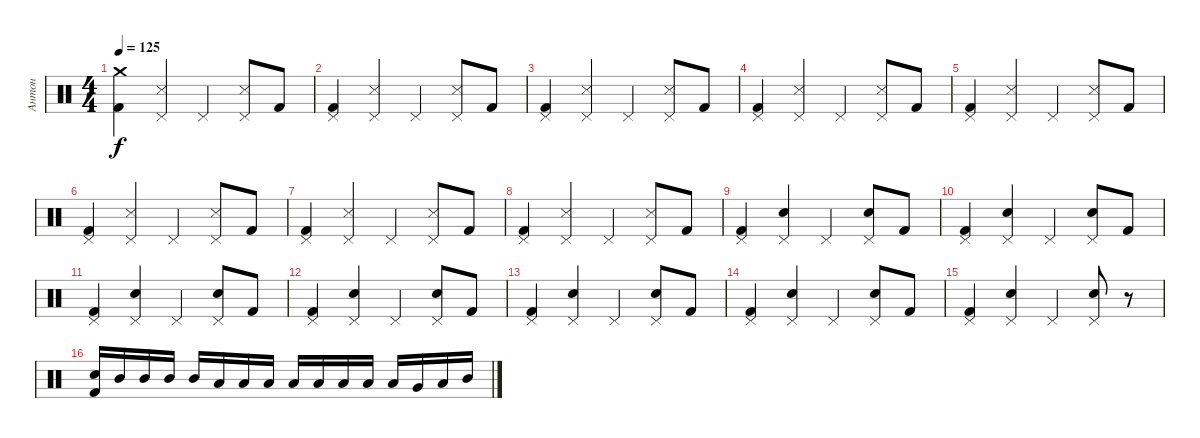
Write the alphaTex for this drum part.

\track ("Антон" "Антон") {instrument percussion}
\staff {score}
\articulation defaults
\ts (4 4)
\tempo 125
\clef neutral
\ks c
("Crash medium (hit)" "Kick (hit) 2").4{dy f} ("Pedal Hi-Hat (hit)" "Snare (side stick) 3").4 "Pedal Hi-Hat (hit)".4 ("Pedal Hi-Hat (hit)" "Snare (side stick) 3").8 "Kick (hit) 2".8 |
("Pedal Hi-Hat (hit)" "Kick (hit) 2").4 ("Pedal Hi-Hat (hit)" "Snare (side stick) 3").4 "Pedal Hi-Hat (hit)".4 ("Pedal Hi-Hat (hit)" "Snare (side stick) 3").8 "Kick (hit) 2".8 |
("Pedal Hi-Hat (hit)" "Kick (hit) 2").4 ("Pedal Hi-Hat (hit)" "Snare (side stick) 3").4 "Pedal Hi-Hat (hit)".4 ("Pedal Hi-Hat (hit)" "Snare (side stick) 3").8 "Kick (hit) 2".8 |
("Pedal Hi-Hat (hit)" "Kick (hit) 2").4 ("Pedal Hi-Hat (hit)" "Snare (side stick) 3").4 "Pedal Hi-Hat (hit)".4 ("Pedal Hi-Hat (hit)" "Snare (side stick) 3").8 "Kick (hit) 2".8 |
("Pedal Hi-Hat (hit)" "Kick (hit) 2").4 ("Pedal Hi-Hat (hit)" "Snare (side stick) 3").4 "Pedal Hi-Hat (hit)".4 ("Pedal Hi-Hat (hit)" "Snare (side stick) 3").8 "Kick (hit) 2".8 |
("Pedal Hi-Hat (hit)" "Kick (hit) 2").4 ("Pedal Hi-Hat (hit)" "Snare (side stick) 3").4 "Pedal Hi-Hat (hit)".4 ("Pedal Hi-Hat (hit)" "Snare (side stick) 3").8 "Kick (hit) 2".8 |
("Pedal Hi-Hat (hit)" "Kick (hit) 2").4 ("Pedal Hi-Hat (hit)" "Snare (side stick) 3").4 "Pedal Hi-Hat (hit)".4 ("Pedal Hi-Hat (hit)" "Snare (side stick) 3").8 "Kick (hit) 2".8 |
("Pedal Hi-Hat (hit)" "Kick (hit) 2").4 ("Pedal Hi-Hat (hit)" "Snare (side stick) 3").4 "Pedal Hi-Hat (hit)".4 ("Pedal Hi-Hat (hit)" "Snare (side stick) 3").8 "Kick (hit) 2".8 |
("Pedal Hi-Hat (hit)" "Kick (hit) 2").4 ("Pedal Hi-Hat (hit)" "Electric Snare (hit)").4 "Pedal Hi-Hat (hit)".4 ("Pedal Hi-Hat (hit)" "Electric Snare (hit)").8 "Kick (hit) 2".8 |
("Pedal Hi-Hat (hit)" "Kick (hit) 2").4 ("Pedal Hi-Hat (hit)" "Electric Snare (hit)").4 "Pedal Hi-Hat (hit)".4 ("Pedal Hi-Hat (hit)" "Electric Snare (hit)").8 "Kick (hit) 2".8 |
("Pedal Hi-Hat (hit)" "Kick (hit) 2").4 ("Pedal Hi-Hat (hit)" "Electric Snare (hit)").4 "Pedal Hi-Hat (hit)".4 ("Pedal Hi-Hat (hit)" "Electric Snare (hit)").8 "Kick (hit) 2".8 |
("Pedal Hi-Hat (hit)" "Kick (hit) 2").4 ("Pedal Hi-Hat (hit)" "Electric Snare (hit)").4 "Pedal Hi-Hat (hit)".4 ("Pedal Hi-Hat (hit)" "Electric Snare (hit)").8 "Kick (hit) 2".8 |
("Pedal Hi-Hat (hit)" "Kick (hit) 2").4 ("Pedal Hi-Hat (hit)" "Electric Snare (hit)").4 "Pedal Hi-Hat (hit)".4 ("Pedal Hi-Hat (hit)" "Electric Snare (hit)").8 "Kick (hit) 2".8 |
("Pedal Hi-Hat (hit)" "Kick (hit) 2").4 ("Pedal Hi-Hat (hit)" "Electric Snare (hit)").4 "Pedal Hi-Hat (hit)".4 ("Pedal Hi-Hat (hit)" "Electric Snare (hit)").8 "Kick (hit) 2".8 |
("Pedal Hi-Hat (hit)" "Kick (hit) 2").4 ("Pedal Hi-Hat (hit)" "Electric Snare (hit)").4 "Pedal Hi-Hat (hit)".4 ("Pedal Hi-Hat (hit)" "Electric Snare (hit)").8 r.8 |
("Electric Snare (hit)" "Kick (hit) 2").16 "Mid Tom (hit)".16 "Mid Tom (hit)".16 "Mid Tom (hit)".16 "Mid Tom (hit)".16 "Low Tom (hit)".16 "Low Tom (hit)".16 "Low Tom (hit)".16 "Low Tom (hit)".16 "Low Floor Tom (hit)".16 "Low Floor Tom (hit)".16 "Low Floor Tom (hit)".16 "Low Floor Tom (hit)".16 "Very Low Tom (hit)".16 "Low Tom (hit)".16 "Mid Tom (hit)".16
